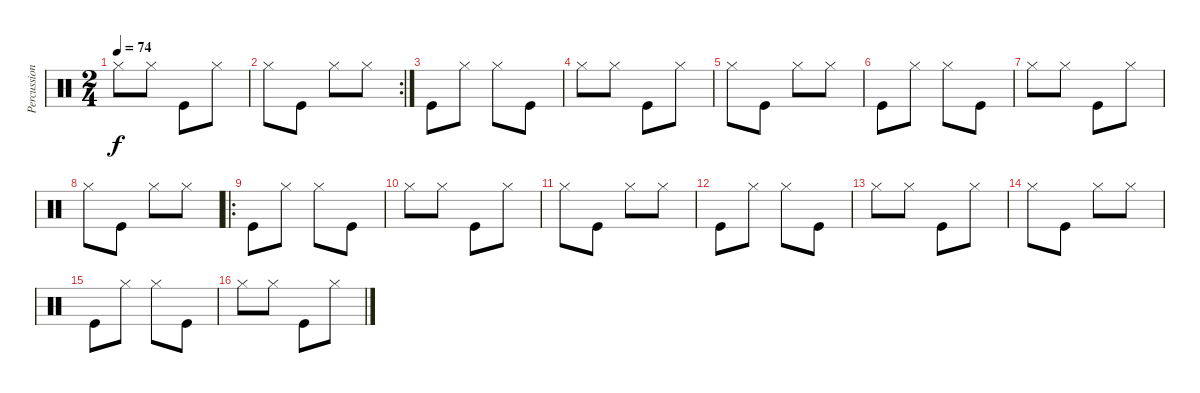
\track ("Percussion" "Percussion") {instrument percussion}
\staff {score}
\articulation defaults
\ts (2 4)
\tempo 74
\clef neutral
\ks c "Hi-Hat (closed)".8{dy f} "Hi-Hat (closed)".8 "Kick (hit)".8 "Hi-Hat (closed)".8
|
\rc 2 "Hi-Hat (closed)".8 "Kick (hit)".8 "Hi-Hat (closed)".8 "Hi-Hat (closed)".8
|
"Kick (hit)".8 "Hi-Hat (closed)".8 "Hi-Hat (closed)".8 "Kick (hit)".8 |
"Hi-Hat (closed)".8 "Hi-Hat (closed)".8 "Kick (hit)".8 "Hi-Hat (closed)".8 |
"Hi-Hat (closed)".8 "Kick (hit)".8 "Hi-Hat (closed)".8 "Hi-Hat (closed)".8 |
"Kick (hit)".8 "Hi-Hat (closed)".8 "Hi-Hat (closed)".8 "Kick (hit)".8 |
"Hi-Hat (closed)".8 "Hi-Hat (closed)".8 "Kick (hit)".8 "Hi-Hat (closed)".8 |
"Hi-Hat (closed)".8 "Kick (hit)".8 "Hi-Hat (closed)".8 "Hi-Hat (closed)".8 |
\ro "Kick (hit)".8 "Hi-Hat (closed)".8 "Hi-Hat (closed)".8 "Kick (hit)".8
|
"Hi-Hat (closed)".8 "Hi-Hat (closed)".8 "Kick (hit)".8 "Hi-Hat (closed)".8 |
"Hi-Hat (closed)".8 "Kick (hit)".8 "Hi-Hat (closed)".8 "Hi-Hat (closed)".8 |
"Kick (hit)".8 "Hi-Hat (closed)".8 "Hi-Hat (closed)".8 "Kick (hit)".8 |
"Hi-Hat (closed)".8 "Hi-Hat (closed)".8 "Kick (hit)".8 "Hi-Hat (closed)".8 |
"Hi-Hat (closed)".8 "Kick (hit)".8 "Hi-Hat (closed)".8 "Hi-Hat (closed)".8 |
"Kick (hit)".8 "Hi-Hat (closed)".8 "Hi-Hat (closed)".8 "Kick (hit)".8 |
"Hi-Hat (closed)".8 "Hi-Hat (closed)".8 "Kick (hit)".8 "Hi-Hat (closed)".8
